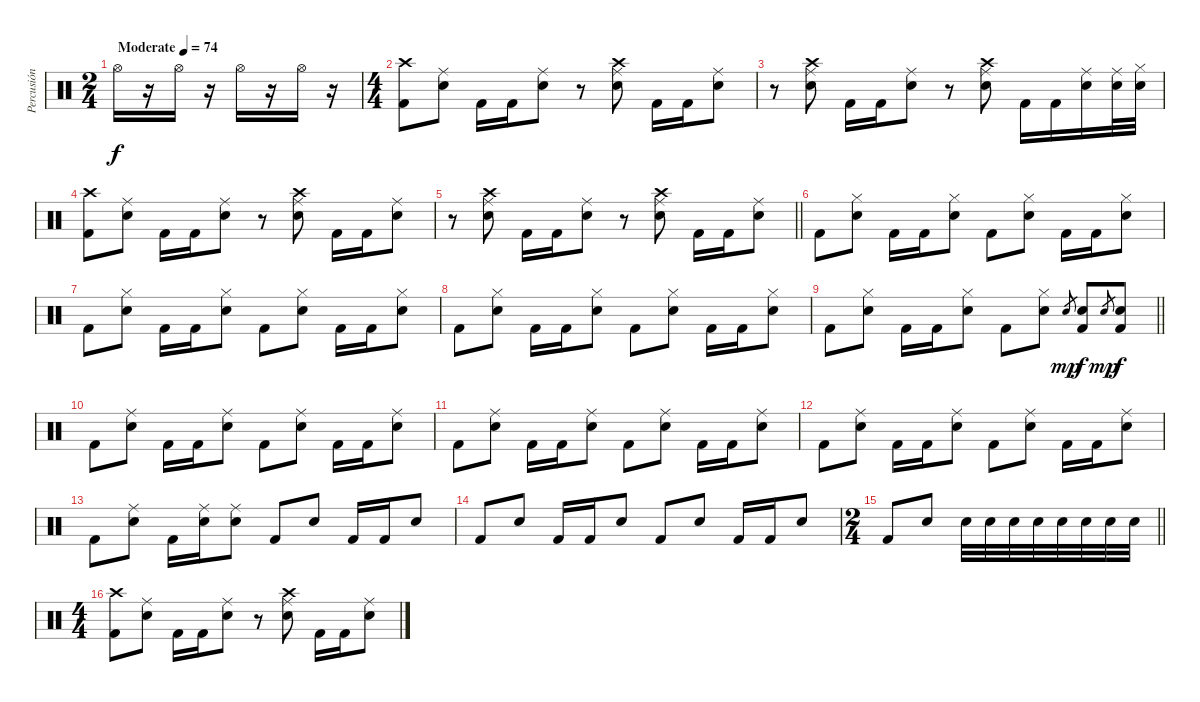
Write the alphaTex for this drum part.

\track ("Percusión" "Percusión") {instrument percussion}
\staff
\articulation defaults
\ts (2 4)
\tempo (74 "Moderate")
\clef neutral
\ks c "Hi-Hat (open)".16{dy f}
r.16 "Hi-Hat (open)".16 r.16 "Hi-Hat (open)".16 r.16 "Hi-Hat (open)".16 r.16 |
\ts (4 4)
("Crash high (hit)" "Kick (hit) 2").8 ("Ride (middle)" "Electric Snare (hit)").8 "Kick (hit) 2".16 "Kick (hit) 2".16 ("Ride (middle)" "Electric Snare (hit)").8 r.8 ("Ride (middle)" "Crash high (hit)" "Electric Snare (hit)").8 "Kick (hit) 2".16 "Kick (hit) 2".16 ("Ride (middle)" "Electric Snare (hit)").8 |
r.8 ("Ride (middle)" "Crash high (hit)" "Electric Snare (hit)").8 "Kick (hit) 2".16 "Kick (hit) 2".16 ("Ride (middle)" "Electric Snare (hit)").8 r.8 ("Ride (middle)" "Crash high (hit)" "Electric Snare (hit)").8 "Kick (hit) 2".16 "Kick (hit) 2".16 ("Ride (middle)" "Electric Snare (hit)").16 ("Ride (middle)" "Electric Snare (hit)").32 ("Electric Snare (hit)" "Hi-Hat (closed)").32 |
("Crash high (hit)" "Kick (hit) 2").8 ("Ride (middle)" "Electric Snare (hit)").8 "Kick (hit) 2".16 "Kick (hit) 2".16 ("Ride (middle)" "Electric Snare (hit)").8 r.8 ("Ride (middle)" "Crash high (hit)" "Electric Snare (hit)").8 "Kick (hit) 2".16 "Kick (hit) 2".16 ("Ride (middle)" "Electric Snare (hit)").8 |
\barLineRight lightlight
r.8 ("Ride (middle)" "Crash high (hit)" "Electric Snare (hit)").8 "Kick (hit) 2".16 "Kick (hit) 2".16 ("Ride (middle)" "Electric Snare (hit)").8 r.8 ("Ride (middle)" "Crash high (hit)" "Electric Snare (hit)").8 "Kick (hit) 2".16 "Kick (hit) 2".16 ("Ride (middle)" "Electric Snare (hit)").8 |
"Kick (hit) 2".8 ("Hi-Hat (closed)" "Electric Snare (hit)").8 "Kick (hit) 2".16 "Kick (hit) 2".16 ("Hi-Hat (closed)" "Electric Snare (hit)").8 "Kick (hit) 2".8 ("Hi-Hat (closed)" "Electric Snare (hit)").8 "Kick (hit) 2".16 "Kick (hit) 2".16 ("Hi-Hat (closed)" "Electric Snare (hit)").8 |
"Kick (hit) 2".8 ("Hi-Hat (closed)" "Electric Snare (hit)").8 "Kick (hit) 2".16 "Kick (hit) 2".16 ("Hi-Hat (closed)" "Electric Snare (hit)").8 "Kick (hit) 2".8 ("Hi-Hat (closed)" "Electric Snare (hit)").8 "Kick (hit) 2".16 "Kick (hit) 2".16 ("Hi-Hat (closed)" "Electric Snare (hit)").8 |
"Kick (hit) 2".8 ("Hi-Hat (closed)" "Electric Snare (hit)").8 "Kick (hit) 2".16 "Kick (hit) 2".16 ("Hi-Hat (closed)" "Electric Snare (hit)").8 "Kick (hit) 2".8 ("Hi-Hat (closed)" "Electric Snare (hit)").8 "Kick (hit) 2".16 "Kick (hit) 2".16 ("Hi-Hat (closed)" "Electric Snare (hit)").8 |
\barLineRight lightlight "Kick (hit) 2".8
("Hi-Hat (closed)" "Electric Snare (hit)").8 "Kick (hit) 2".16 "Kick (hit) 2".16 ("Hi-Hat (closed)" "Electric Snare (hit)").8 "Kick (hit) 2".8 ("Hi-Hat (closed)" "Electric Snare (hit)").8 "Electric Snare (hit)".8{gr dy mp} ("Electric Snare (hit)" "Kick (hit) 2").8{dy f} "Electric Snare (hit)".8{gr dy mp} ("Electric Snare (hit)" "Kick (hit) 2").8{dy f} |
"Kick (hit) 2".8 ("Ride (middle)" "Electric Snare (hit)").8 "Kick (hit) 2".16 "Kick (hit) 2".16 ("Ride (middle)" "Electric Snare (hit)").8 "Kick (hit) 2".8 ("Ride (middle)" "Electric Snare (hit)").8 "Kick (hit) 2".16 "Kick (hit) 2".16 ("Ride (middle)" "Electric Snare (hit)").8 |
"Kick (hit) 2".8 ("Ride (middle)" "Electric Snare (hit)").8 "Kick (hit) 2".16 "Kick (hit) 2".16 ("Ride (middle)" "Electric Snare (hit)").8 "Kick (hit) 2".8 ("Ride (middle)" "Electric Snare (hit)").8 "Kick (hit) 2".16 "Kick (hit) 2".16 ("Ride (middle)" "Electric Snare (hit)").8 |
"Kick (hit) 2".8 ("Ride (middle)" "Electric Snare (hit)").8 "Kick (hit) 2".16 "Kick (hit) 2".16 ("Ride (middle)" "Electric Snare (hit)").8 "Kick (hit) 2".8 ("Ride (middle)" "Electric Snare (hit)").8 "Kick (hit) 2".16 "Kick (hit) 2".16 ("Ride (middle)" "Electric Snare (hit)").8 |
"Kick (hit) 2".8 ("Ride (middle)" "Electric Snare (hit)").8 "Kick (hit) 2".16 ("Ride (middle)" "Electric Snare (hit)").16 ("Ride (middle)" "Electric Snare (hit)").8 "Kick (hit) 2".8 "Electric Snare (hit)".8 "Kick (hit) 2".16 "Kick (hit) 2".16 "Electric Snare (hit)".8 |
"Kick (hit) 2".8 "Electric Snare (hit)".8 "Kick (hit) 2".16 "Kick (hit) 2".16 "Electric Snare (hit)".8 "Kick (hit) 2".8 "Electric Snare (hit)".8 "Kick (hit) 2".16 "Kick (hit) 2".16 "Electric Snare (hit)".8 |
\ts (2 4)
\barLineRight lightlight "Kick (hit) 2".8 "Electric Snare (hit)".8 "Electric Snare (hit)".32 "Electric Snare (hit)".32 "Electric Snare (hit)".32 "Electric Snare (hit)".32 "Electric Snare (hit)".32 "Electric Snare (hit)".32 "Electric Snare (hit)".32 "Electric Snare (hit)".32
|
\ts (4 4)
("Crash high (hit)" "Kick (hit) 2").8 ("Ride (middle)" "Electric Snare (hit)").8 "Kick (hit) 2".16 "Kick (hit) 2".16 ("Ride (middle)" "Electric Snare (hit)").8 r.8 ("Ride (middle)" "Crash high (hit)" "Electric Snare (hit)").8 "Kick (hit) 2".16 "Kick (hit) 2".16 ("Ride (middle)" "Electric Snare (hit)").8
